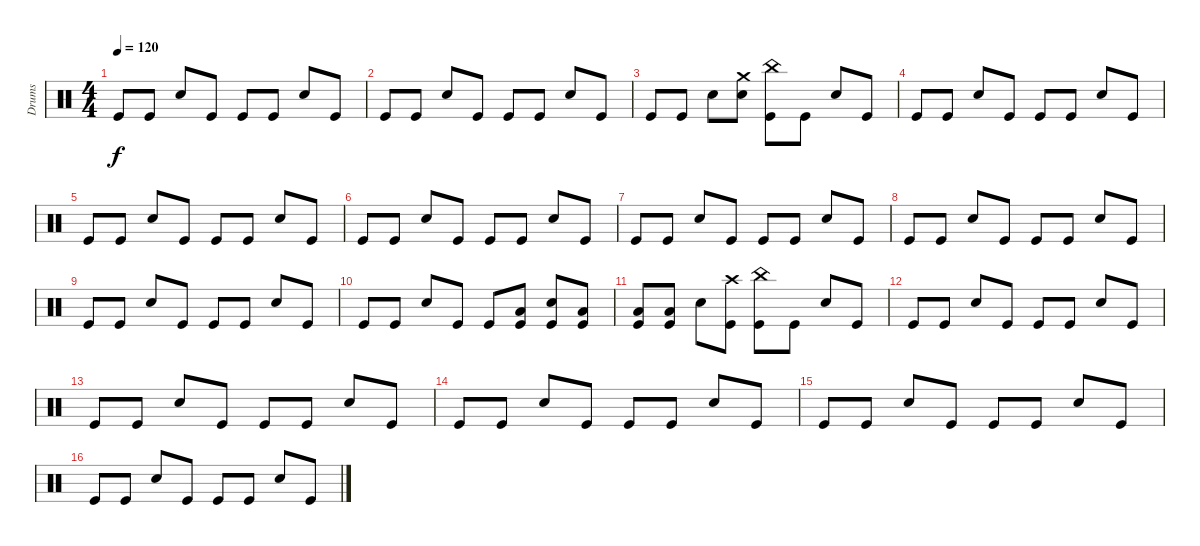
\track ("Drums" "Drums") {instrument percussion}
\staff {score}
\articulation defaults
\ts (4 4)
\tempo 120
\clef neutral
\ks c "Kick (hit)".8{dy f} "Kick (hit)".8 "Snare (hit) 2".8 "Kick (hit)".8 "Kick (hit)".8 "Kick (hit)".8 "Snare (hit) 2".8 "Kick (hit)".8
|
"Kick (hit)".8 "Kick (hit)".8 "Snare (hit) 2".8 "Kick (hit)".8 "Kick (hit)".8 "Kick (hit)".8 "Snare (hit) 2".8 "Kick (hit)".8 |
"Kick (hit)".8 "Kick (hit)".8 "Snare (hit) 2".8 ("Crash medium (hit)" "Snare (hit) 2").8 ("China (hit)" "Kick (hit)").8 "Kick (hit)".8 "Snare (hit) 2".8 "Kick (hit)".8 |
"Kick (hit)".8 "Kick (hit)".8 "Snare (hit) 2".8 "Kick (hit)".8 "Kick (hit)".8 "Kick (hit)".8 "Snare (hit) 2".8 "Kick (hit)".8 |
"Kick (hit)".8 "Kick (hit)".8 "Snare (hit) 2".8 "Kick (hit)".8 "Kick (hit)".8 "Kick (hit)".8 "Snare (hit) 2".8 "Kick (hit)".8 |
"Kick (hit)".8 "Kick (hit)".8 "Snare (hit) 2".8 "Kick (hit)".8 "Kick (hit)".8 "Kick (hit)".8 "Snare (hit) 2".8 "Kick (hit)".8 |
"Kick (hit)".8 "Kick (hit)".8 "Snare (hit) 2".8 "Kick (hit)".8 "Kick (hit)".8 "Kick (hit)".8 "Snare (hit) 2".8 "Kick (hit)".8 |
"Kick (hit)".8 "Kick (hit)".8 "Snare (hit) 2".8 "Kick (hit)".8 "Kick (hit)".8 "Kick (hit)".8 "Snare (hit) 2".8 "Kick (hit)".8 |
"Kick (hit)".8 "Kick (hit)".8 "Snare (hit) 2".8 "Kick (hit)".8 "Kick (hit)".8 "Kick (hit)".8 "Snare (hit) 2".8 "Kick (hit)".8 |
"Kick (hit)".8 "Kick (hit)".8 "Snare (hit) 2".8 "Kick (hit)".8 "Kick (hit)".8 ("Low Floor Tom (hit)" "Kick (hit)").8 ("Snare (hit) 2" "Kick (hit)").8 ("Low Floor Tom (hit)" "Kick (hit)").8 |
("Low Floor Tom (hit)" "Kick (hit)").8 ("Low Floor Tom (hit)" "Kick (hit)").8 "Snare (hit) 2".8 ("Crash high (hit)" "Kick (hit)").8 ("China (hit)" "Kick (hit)").8 "Kick (hit)".8 "Snare (hit) 2".8 "Kick (hit)".8 |
"Kick (hit)".8 "Kick (hit)".8 "Snare (hit) 2".8 "Kick (hit)".8 "Kick (hit)".8 "Kick (hit)".8 "Snare (hit) 2".8 "Kick (hit)".8 |
"Kick (hit)".8 "Kick (hit)".8 "Snare (hit) 2".8 "Kick (hit)".8 "Kick (hit)".8 "Kick (hit)".8 "Snare (hit) 2".8 "Kick (hit)".8 |
"Kick (hit)".8 "Kick (hit)".8 "Snare (hit) 2".8 "Kick (hit)".8 "Kick (hit)".8 "Kick (hit)".8 "Snare (hit) 2".8 "Kick (hit)".8 |
"Kick (hit)".8 "Kick (hit)".8 "Snare (hit) 2".8 "Kick (hit)".8 "Kick (hit)".8 "Kick (hit)".8 "Snare (hit) 2".8 "Kick (hit)".8 |
"Kick (hit)".8 "Kick (hit)".8 "Snare (hit) 2".8 "Kick (hit)".8 "Kick (hit)".8 "Kick (hit)".8 "Snare (hit) 2".8 "Kick (hit)".8
